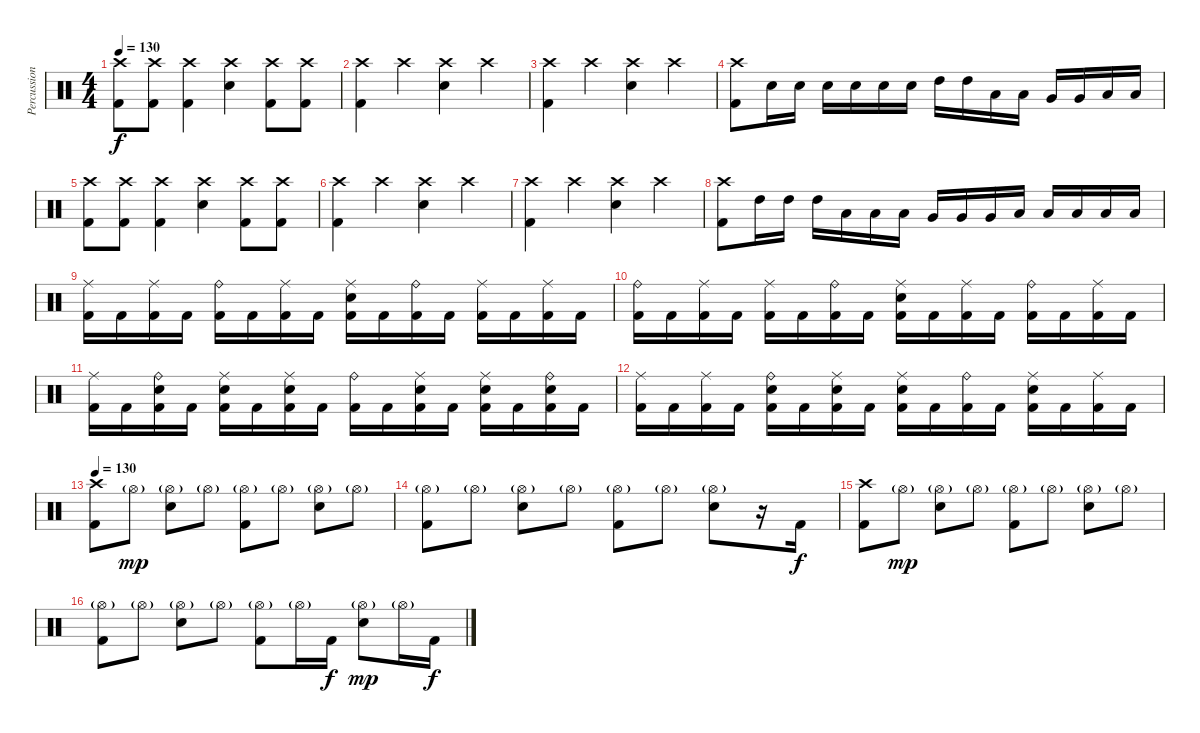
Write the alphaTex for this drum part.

\track ("Percussion" "Percussion") {instrument percussion}
\staff {score}
\articulation defaults
\ts (4 4)
\tempo 130
\clef neutral
\ks c
("Crash high (hit)" "Kick (hit) 2").8{dy f} ("Crash high (hit)" "Kick (hit) 2").8 ("Crash high (hit)" "Kick (hit) 2").4 ("Crash high (hit)" "Electric Snare (hit)").4 ("Crash high (hit)" "Kick (hit) 2").8 ("Crash high (hit)" "Kick (hit) 2").8 |
("Crash high (hit)" "Kick (hit) 2").4 "Crash high (hit)".4 ("Crash high (hit)" "Electric Snare (hit)").4 "Crash high (hit)".4 |
("Crash high (hit)" "Kick (hit) 2").4 "Crash high (hit)".4 ("Crash high (hit)" "Electric Snare (hit)").4 "Crash high (hit)".4 |
("Crash high (hit)" "Kick (hit) 2").8 "Electric Snare (hit)".16 "Electric Snare (hit)".16 "Electric Snare (hit)".16 "Electric Snare (hit)".16 "Electric Snare (hit)".16 "Electric Snare (hit)".16 "High Tom (hit)".16 "High Tom (hit)".16 "Low Tom (hit)".16 "Low Tom (hit)".16 "Very Low Tom (hit)".16 "Very Low Tom (hit)".16 "Low Floor Tom (hit)".16 "Low Floor Tom (hit)".16 |
("Crash high (hit)" "Kick (hit) 2").8 ("Crash high (hit)" "Kick (hit) 2").8 ("Crash high (hit)" "Kick (hit) 2").4 ("Crash high (hit)" "Electric Snare (hit)").4 ("Crash high (hit)" "Kick (hit) 2").8 ("Crash high (hit)" "Kick (hit) 2").8 |
("Crash high (hit)" "Kick (hit) 2").4 "Crash high (hit)".4 ("Crash high (hit)" "Electric Snare (hit)").4 "Crash high (hit)".4 |
("Crash high (hit)" "Kick (hit) 2").4 "Crash high (hit)".4 ("Crash high (hit)" "Electric Snare (hit)").4 "Crash high (hit)".4 |
("Crash high (hit)" "Kick (hit) 2").8 "High Tom (hit)".16 "High Tom (hit)".16 "High Tom (hit)".16 "Low Tom (hit)".16 "Low Tom (hit)".16 "Low Tom (hit)".16 "Very Low Tom (hit)".16 "Very Low Tom (hit)".16 "Very Low Tom (hit)".16 "Low Floor Tom (hit)".16 "Low Floor Tom (hit)".16 "Low Floor Tom (hit)".16 "Low Floor Tom (hit)".16 "Low Floor Tom (hit)".16 |
("Ride (middle)" "Kick (hit) 2").16 "Kick (hit) 2".16 ("Ride (middle)" "Kick (hit) 2").16 "Kick (hit) 2".16 ("Ride (bell)" "Kick (hit) 2").16 "Kick (hit) 2".16 ("Ride (middle)" "Kick (hit) 2").16 "Kick (hit) 2".16 ("Ride (middle)" "Electric Snare (hit)" "Kick (hit) 2").16 "Kick (hit) 2".16 ("Ride (bell)" "Kick (hit) 2").16 "Kick (hit) 2".16 ("Ride (middle)" "Kick (hit) 2").16 "Kick (hit) 2".16 ("Ride (middle)" "Kick (hit) 2").16 "Kick (hit) 2".16 |
("Ride (bell)" "Kick (hit) 2").16 "Kick (hit) 2".16 ("Ride (middle)" "Kick (hit) 2").16 "Kick (hit) 2".16 ("Ride (middle)" "Kick (hit) 2").16 "Kick (hit) 2".16 ("Ride (bell)" "Kick (hit) 2").16 "Kick (hit) 2".16 ("Ride (middle)" "Electric Snare (hit)" "Kick (hit) 2").16 "Kick (hit) 2".16 ("Ride (middle)" "Kick (hit) 2").16 "Kick (hit) 2".16 ("Ride (bell)" "Kick (hit) 2").16 "Kick (hit) 2".16 ("Ride (middle)" "Kick (hit) 2").16 "Kick (hit) 2".16 |
("Ride (middle)" "Kick (hit) 2").16 "Kick (hit) 2".16 ("Ride (bell)" "Electric Snare (hit)" "Kick (hit) 2").16 "Kick (hit) 2".16 ("Ride (middle)" "Electric Snare (hit)" "Kick (hit) 2").16 "Kick (hit) 2".16 ("Ride (middle)" "Electric Snare (hit)" "Kick (hit) 2").16 "Kick (hit) 2".16 ("Ride (bell)" "Kick (hit) 2").16 "Kick (hit) 2".16 ("Ride (middle)" "Electric Snare (hit)" "Kick (hit) 2").16 "Kick (hit) 2".16 ("Ride (middle)" "Electric Snare (hit)" "Kick (hit) 2").16 "Kick (hit) 2".16 ("Ride (bell)" "Electric Snare (hit)" "Kick (hit) 2").16 "Kick (hit) 2".16 |
("Ride (middle)" "Kick (hit) 2").16 "Kick (hit) 2".16 ("Ride (middle)" "Kick (hit) 2").16 "Kick (hit) 2".16 ("Ride (bell)" "Electric Snare (hit)" "Kick (hit) 2").16 "Kick (hit) 2".16 ("Ride (middle)" "Electric Snare (hit)" "Kick (hit) 2").16 "Kick (hit) 2".16 ("Ride (middle)" "Electric Snare (hit)" "Kick (hit) 2").16 "Kick (hit) 2".16 ("Ride (bell)" "Kick (hit) 2").16 "Kick (hit) 2".16 ("Ride (middle)" "Electric Snare (hit)" "Kick (hit) 2").16 "Kick (hit) 2".16 ("Ride (middle)" "Kick (hit) 2").16 "Kick (hit) 2".16 |
\tempo 130
("Crash high (hit)" "Kick (hit) 2").8 "Hi-Hat (open)"{g}.8{dy mp} ("Hi-Hat (open)"{g} "Electric Snare (hit)").8 "Hi-Hat (open)"{g}.8 ("Hi-Hat (open)"{g} "Kick (hit) 2").8 "Hi-Hat (open)"{g}.8 ("Hi-Hat (open)"{g} "Electric Snare (hit)").8 "Hi-Hat (open)"{g}.8 |
("Hi-Hat (open)"{g} "Kick (hit) 2").8 "Hi-Hat (open)"{g}.8 ("Hi-Hat (open)"{g} "Electric Snare (hit)").8 "Hi-Hat (open)"{g}.8 ("Hi-Hat (open)"{g} "Kick (hit) 2").8 "Hi-Hat (open)"{g}.8 ("Hi-Hat (open)"{g} "Electric Snare (hit)").8 r.16 "Kick (hit) 2".16{dy f} |
("Crash high (hit)" "Kick (hit) 2").8 "Hi-Hat (open)"{g}.8{dy mp} ("Hi-Hat (open)"{g} "Electric Snare (hit)").8 "Hi-Hat (open)"{g}.8 ("Hi-Hat (open)"{g} "Kick (hit) 2").8 "Hi-Hat (open)"{g}.8 ("Hi-Hat (open)"{g} "Electric Snare (hit)").8 "Hi-Hat (open)"{g}.8 |
("Hi-Hat (open)"{g} "Kick (hit) 2").8 "Hi-Hat (open)"{g}.8 ("Hi-Hat (open)"{g} "Electric Snare (hit)").8 "Hi-Hat (open)"{g}.8 ("Hi-Hat (open)"{g} "Kick (hit) 2").8 "Hi-Hat (open)"{g}.16 "Kick (hit) 2".16{dy f} ("Hi-Hat (open)"{g} "Electric Snare (hit)").8{dy mp} "Hi-Hat (open)"{g}.16 "Kick (hit) 2".16{dy f}
